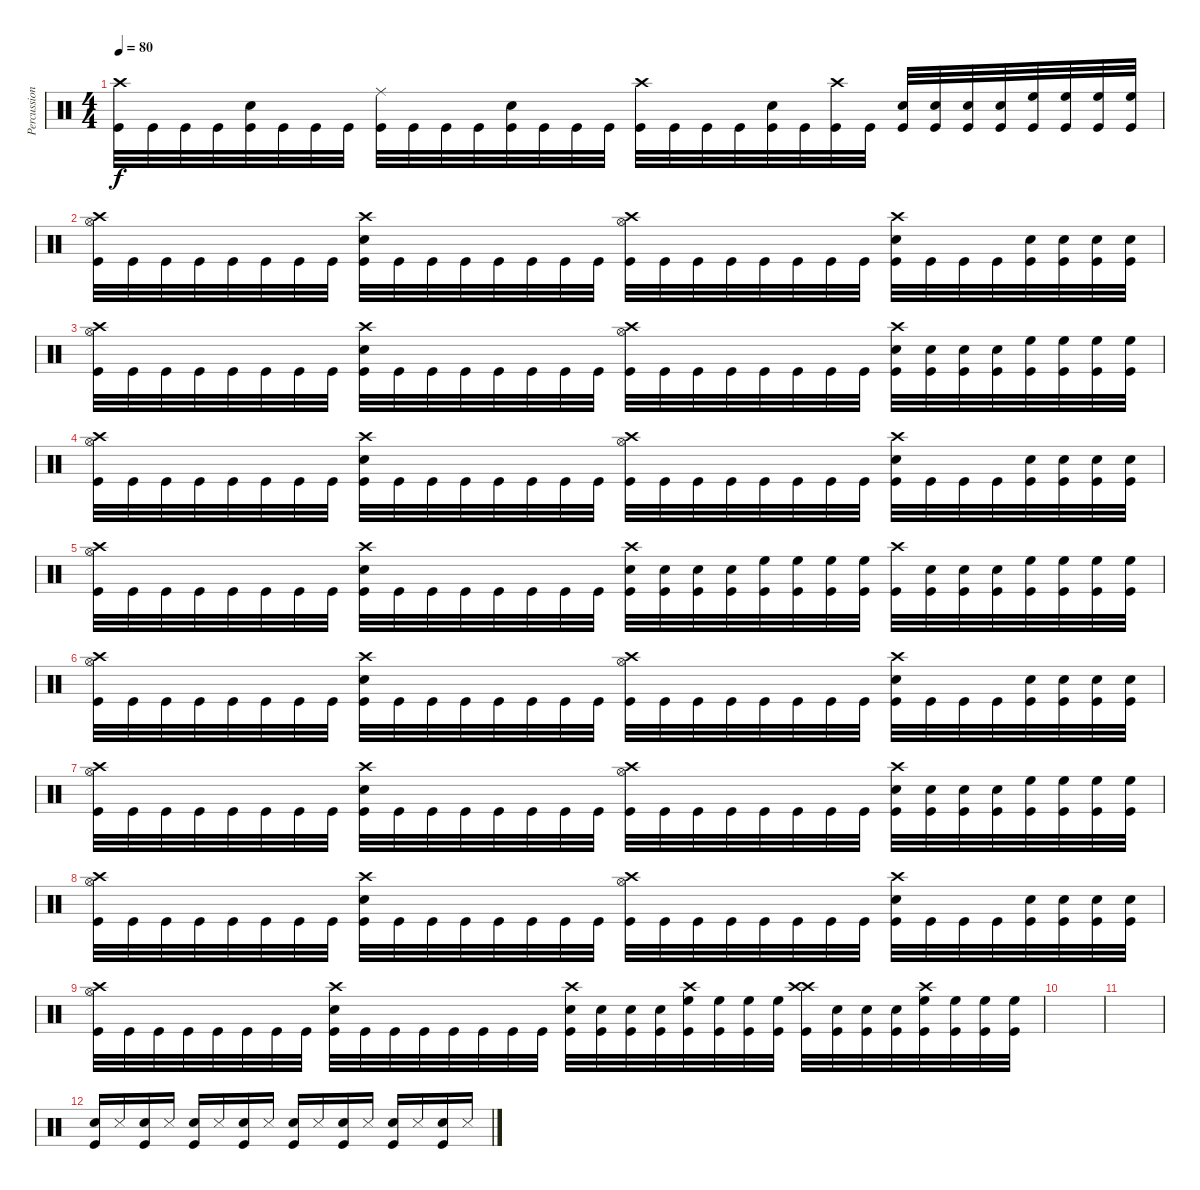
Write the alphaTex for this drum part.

\track ("Percussion" "Percussion") {instrument percussion bank 177}
\staff {score}
\articulation defaults
\ts (4 4)
\tempo 80
\clef neutral
\ks c
("Crash high (hit)" "Kick (hit)").32{dy f} "Kick (hit)".32 "Kick (hit)".32 "Kick (hit)".32 ("Snare (hit) 2" "Kick (hit)").32 "Kick (hit)".32 "Kick (hit)".32 "Kick (hit)".32 ("Ride (middle)" "Kick (hit)").32 "Kick (hit)".32 "Kick (hit)".32 "Kick (hit)".32 ("Snare (hit) 2" "Kick (hit)").32 "Kick (hit)".32 "Kick (hit)".32 "Kick (hit)".32 ("Crash high (hit)" "Kick (hit)").32 "Kick (hit)".32 "Kick (hit)".32 "Kick (hit)".32 ("Snare (hit) 2" "Kick (hit)").32 "Kick (hit)".32 ("Crash high (hit)" "Kick (hit)").32 "Kick (hit)".32 ("Snare (hit) 2" "Kick (hit)").32 ("Snare (hit) 2" "Kick (hit)").32 ("Snare (hit) 2" "Kick (hit)").32 ("Snare (hit) 2" "Kick (hit)").32 ("High Floor Tom (hit)" "Kick (hit)").32 ("High Floor Tom (hit)" "Kick (hit)").32 ("High Floor Tom (hit)" "Kick (hit)").32 ("High Floor Tom (hit)" "Kick (hit)").32 |
("Hi-Hat (open)" "Crash high (hit)" "Kick (hit)").32 "Kick (hit)".32 "Kick (hit)".32 "Kick (hit)".32 "Kick (hit)".32 "Kick (hit)".32 "Kick (hit)".32 "Kick (hit)".32 ("Snare (hit) 2" "Crash high (hit)" "Kick (hit)").32 "Kick (hit)".32 "Kick (hit)".32 "Kick (hit)".32 "Kick (hit)".32 "Kick (hit)".32 "Kick (hit)".32 "Kick (hit)".32 ("Hi-Hat (open)" "Crash high (hit)" "Kick (hit)").32 "Kick (hit)".32 "Kick (hit)".32 "Kick (hit)".32 "Kick (hit)".32 "Kick (hit)".32 "Kick (hit)".32 "Kick (hit)".32 ("Snare (hit) 2" "Crash high (hit)" "Kick (hit)").32 "Kick (hit)".32 "Kick (hit)".32 "Kick (hit)".32 ("Snare (hit) 2" "Kick (hit)").32 ("Snare (hit) 2" "Kick (hit)").32 ("Snare (hit) 2" "Kick (hit)").32 ("Snare (hit) 2" "Kick (hit)").32 |
("Hi-Hat (open)" "Crash high (hit)" "Kick (hit)").32 "Kick (hit)".32 "Kick (hit)".32 "Kick (hit)".32 "Kick (hit)".32 "Kick (hit)".32 "Kick (hit)".32 "Kick (hit)".32 ("Snare (hit) 2" "Crash high (hit)" "Kick (hit)").32 "Kick (hit)".32 "Kick (hit)".32 "Kick (hit)".32 "Kick (hit)".32 "Kick (hit)".32 "Kick (hit)".32 "Kick (hit)".32 ("Hi-Hat (open)" "Crash high (hit)" "Kick (hit)").32 "Kick (hit)".32 "Kick (hit)".32 "Kick (hit)".32 "Kick (hit)".32 "Kick (hit)".32 "Kick (hit)".32 "Kick (hit)".32 ("Snare (hit) 2" "Crash high (hit)" "Kick (hit)").32 ("Snare (hit) 2" "Kick (hit)").32 ("Snare (hit) 2" "Kick (hit)").32 ("Snare (hit) 2" "Kick (hit)").32 ("High Floor Tom (hit)" "Kick (hit)").32 ("High Floor Tom (hit)" "Kick (hit)").32 ("High Floor Tom (hit)" "Kick (hit)").32 ("High Floor Tom (hit)" "Kick (hit)").32 |
("Hi-Hat (open)" "Crash high (hit)" "Kick (hit)").32 "Kick (hit)".32 "Kick (hit)".32 "Kick (hit)".32 "Kick (hit)".32 "Kick (hit)".32 "Kick (hit)".32 "Kick (hit)".32 ("Snare (hit) 2" "Crash high (hit)" "Kick (hit)").32 "Kick (hit)".32 "Kick (hit)".32 "Kick (hit)".32 "Kick (hit)".32 "Kick (hit)".32 "Kick (hit)".32 "Kick (hit)".32 ("Hi-Hat (open)" "Crash high (hit)" "Kick (hit)").32 "Kick (hit)".32 "Kick (hit)".32 "Kick (hit)".32 "Kick (hit)".32 "Kick (hit)".32 "Kick (hit)".32 "Kick (hit)".32 ("Snare (hit) 2" "Crash high (hit)" "Kick (hit)").32 "Kick (hit)".32 "Kick (hit)".32 "Kick (hit)".32 ("Snare (hit) 2" "Kick (hit)").32 ("Snare (hit) 2" "Kick (hit)").32 ("Snare (hit) 2" "Kick (hit)").32 ("Snare (hit) 2" "Kick (hit)").32 |
("Hi-Hat (open)" "Crash high (hit)" "Kick (hit)").32 "Kick (hit)".32 "Kick (hit)".32 "Kick (hit)".32 "Kick (hit)".32 "Kick (hit)".32 "Kick (hit)".32 "Kick (hit)".32 ("Snare (hit) 2" "Crash high (hit)" "Kick (hit)").32 "Kick (hit)".32 "Kick (hit)".32 "Kick (hit)".32 "Kick (hit)".32 "Kick (hit)".32 "Kick (hit)".32 "Kick (hit)".32 ("Snare (hit) 2" "Crash high (hit)" "Kick (hit)").32 ("Snare (hit) 2" "Kick (hit)").32 ("Snare (hit) 2" "Kick (hit)").32 ("Snare (hit) 2" "Kick (hit)").32 ("High Floor Tom (hit)" "Kick (hit)").32 ("High Floor Tom (hit)" "Kick (hit)").32 ("High Floor Tom (hit)" "Kick (hit)").32 ("High Floor Tom (hit)" "Kick (hit)").32 ("Crash high (hit)" "Kick (hit)").32 ("Snare (hit) 2" "Kick (hit)").32 ("Snare (hit) 2" "Kick (hit)").32 ("Snare (hit) 2" "Kick (hit)").32 ("High Floor Tom (hit)" "Kick (hit)").32 ("High Floor Tom (hit)" "Kick (hit)").32 ("High Floor Tom (hit)" "Kick (hit)").32 ("High Floor Tom (hit)" "Kick (hit)").32 |
("Hi-Hat (open)" "Crash high (hit)" "Kick (hit)").32 "Kick (hit)".32 "Kick (hit)".32 "Kick (hit)".32 "Kick (hit)".32 "Kick (hit)".32 "Kick (hit)".32 "Kick (hit)".32 ("Snare (hit) 2" "Crash high (hit)" "Kick (hit)").32 "Kick (hit)".32 "Kick (hit)".32 "Kick (hit)".32 "Kick (hit)".32 "Kick (hit)".32 "Kick (hit)".32 "Kick (hit)".32 ("Hi-Hat (open)" "Crash high (hit)" "Kick (hit)").32 "Kick (hit)".32 "Kick (hit)".32 "Kick (hit)".32 "Kick (hit)".32 "Kick (hit)".32 "Kick (hit)".32 "Kick (hit)".32 ("Snare (hit) 2" "Crash high (hit)" "Kick (hit)").32 "Kick (hit)".32 "Kick (hit)".32 "Kick (hit)".32 ("Snare (hit) 2" "Kick (hit)").32 ("Snare (hit) 2" "Kick (hit)").32 ("Snare (hit) 2" "Kick (hit)").32 ("Snare (hit) 2" "Kick (hit)").32 |
("Hi-Hat (open)" "Crash high (hit)" "Kick (hit)").32 "Kick (hit)".32 "Kick (hit)".32 "Kick (hit)".32 "Kick (hit)".32 "Kick (hit)".32 "Kick (hit)".32 "Kick (hit)".32 ("Snare (hit) 2" "Crash high (hit)" "Kick (hit)").32 "Kick (hit)".32 "Kick (hit)".32 "Kick (hit)".32 "Kick (hit)".32 "Kick (hit)".32 "Kick (hit)".32 "Kick (hit)".32 ("Hi-Hat (open)" "Crash high (hit)" "Kick (hit)").32 "Kick (hit)".32 "Kick (hit)".32 "Kick (hit)".32 "Kick (hit)".32 "Kick (hit)".32 "Kick (hit)".32 "Kick (hit)".32 ("Snare (hit) 2" "Crash high (hit)" "Kick (hit)").32 ("Snare (hit) 2" "Kick (hit)").32 ("Snare (hit) 2" "Kick (hit)").32 ("Snare (hit) 2" "Kick (hit)").32 ("High Floor Tom (hit)" "Kick (hit)").32 ("High Floor Tom (hit)" "Kick (hit)").32 ("High Floor Tom (hit)" "Kick (hit)").32 ("High Floor Tom (hit)" "Kick (hit)").32 |
("Hi-Hat (open)" "Crash high (hit)" "Kick (hit)").32 "Kick (hit)".32 "Kick (hit)".32 "Kick (hit)".32 "Kick (hit)".32 "Kick (hit)".32 "Kick (hit)".32 "Kick (hit)".32 ("Snare (hit) 2" "Crash high (hit)" "Kick (hit)").32 "Kick (hit)".32 "Kick (hit)".32 "Kick (hit)".32 "Kick (hit)".32 "Kick (hit)".32 "Kick (hit)".32 "Kick (hit)".32 ("Hi-Hat (open)" "Crash high (hit)" "Kick (hit)").32 "Kick (hit)".32 "Kick (hit)".32 "Kick (hit)".32 "Kick (hit)".32 "Kick (hit)".32 "Kick (hit)".32 "Kick (hit)".32 ("Snare (hit) 2" "Crash high (hit)" "Kick (hit)").32 "Kick (hit)".32 "Kick (hit)".32 "Kick (hit)".32 ("Snare (hit) 2" "Kick (hit)").32 ("Snare (hit) 2" "Kick (hit)").32 ("Snare (hit) 2" "Kick (hit)").32 ("Snare (hit) 2" "Kick (hit)").32 |
("Hi-Hat (open)" "Crash high (hit)" "Kick (hit)").32 "Kick (hit)".32 "Kick (hit)".32 "Kick (hit)".32 "Kick (hit)".32 "Kick (hit)".32 "Kick (hit)".32 "Kick (hit)".32 ("Snare (hit) 2" "Crash high (hit)" "Kick (hit)").32 "Kick (hit)".32 "Kick (hit)".32 "Kick (hit)".32 "Kick (hit)".32 "Kick (hit)".32 "Kick (hit)".32 "Kick (hit)".32 ("Snare (hit) 2" "Crash high (hit)" "Kick (hit)").32 ("Snare (hit) 2" "Kick (hit)").32 ("Snare (hit) 2" "Kick (hit)").32 ("Snare (hit) 2" "Kick (hit)").32 ("Crash high (hit)" "High Floor Tom (hit)" "Kick (hit)").32 ("High Floor Tom (hit)" "Kick (hit)").32 ("High Floor Tom (hit)" "Kick (hit)").32 ("High Floor Tom (hit)" "Kick (hit)").32 ("Crash high (hit)" "Crash high (hit)" "Kick (hit)").32 ("Snare (hit) 2" "Kick (hit)").32 ("Snare (hit) 2" "Kick (hit)").32 ("Snare (hit) 2" "Kick (hit)").32 ("Crash high (hit)" "High Floor Tom (hit)" "Kick (hit)").32 ("High Floor Tom (hit)" "Kick (hit)").32 ("High Floor Tom (hit)" "Kick (hit)").32 ("High Floor Tom (hit)" "Kick (hit)").32 |
|
|
("Snare (hit) 2" "Kick (hit)").16 "Snare (side stick) 3".16 ("Snare (hit) 2" "Kick (hit)").16 "Snare (side stick) 3".16 ("Snare (hit) 2" "Kick (hit)").16 "Snare (side stick) 3".16 ("Snare (hit) 2" "Kick (hit)").16 "Snare (side stick) 3".16 ("Snare (hit) 2" "Kick (hit)").16 "Snare (side stick) 3".16 ("Snare (hit) 2" "Kick (hit)").16 "Snare (side stick) 3".16 ("Snare (hit) 2" "Kick (hit)").16 "Snare (side stick) 3".16 ("Snare (hit) 2" "Kick (hit)").16 "Snare (side stick) 3".16
